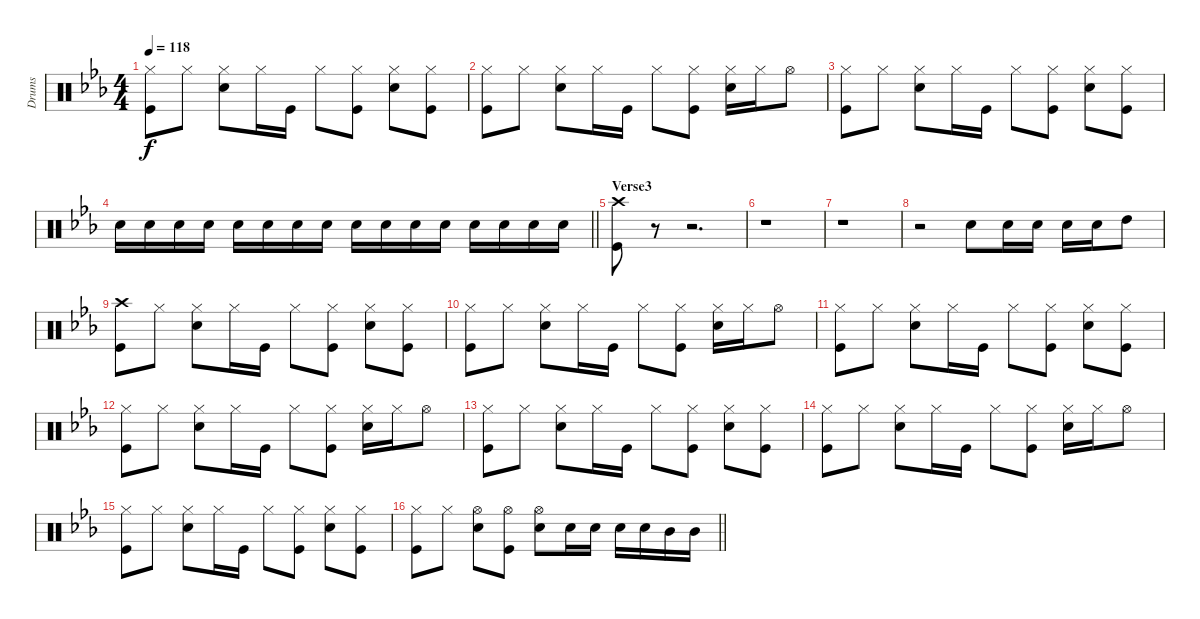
\track ("Drums" "Drums") {instrument percussion}
\staff {score}
\articulation defaults
\ts (4 4)
\tempo 118
\clef neutral
\ks cminor
("Hi-Hat (closed)" "Kick (hit)").8{dy f} "Hi-Hat (closed)".8 ("Hi-Hat (closed)" "Snare (hit) 2").8 "Hi-Hat (closed)".16 "Kick (hit)".16 "Hi-Hat (closed)".8 ("Hi-Hat (closed)" "Kick (hit)").8 ("Hi-Hat (closed)" "Snare (hit) 2").8 ("Hi-Hat (closed)" "Kick (hit)").8 |
("Hi-Hat (closed)" "Kick (hit)").8 "Hi-Hat (closed)".8 ("Hi-Hat (closed)" "Snare (hit) 2").8 "Hi-Hat (closed)".16 "Kick (hit)".16 "Hi-Hat (closed)".8 ("Hi-Hat (closed)" "Kick (hit)").8 ("Hi-Hat (closed)" "Snare (hit) 2").16 "Hi-Hat (closed)".16 "Hi-Hat (open)".8 |
("Hi-Hat (closed)" "Kick (hit)").8 "Hi-Hat (closed)".8 ("Hi-Hat (closed)" "Snare (hit) 2").8 "Hi-Hat (closed)".16 "Kick (hit)".16 "Hi-Hat (closed)".8 ("Hi-Hat (closed)" "Kick (hit)").8 ("Hi-Hat (closed)" "Snare (hit) 2").8 ("Hi-Hat (closed)" "Kick (hit)").8 |
\barLineRight lightlight "Snare (hit) 2".16 "Snare (hit) 2".16 "Snare (hit) 2".16 "Snare (hit) 2".16 "Snare (hit) 2".16 "Snare (hit) 2".16 "Snare (hit) 2".16 "Snare (hit) 2".16 "Snare (hit) 2".16 "Snare (hit) 2".16 "Snare (hit) 2".16 "Snare (hit) 2".16 "Snare (hit) 2".16 "Snare (hit) 2".16 "Snare (hit) 2".16 "Snare (hit) 2".16
|
\section ("" "Verse3")
("Kick (hit)" "Crash high (hit)").8 r.8 r.2{d} |
r.1 |
r.1 |
r.2 "Snare (hit) 2".8 "Snare (hit) 2".16 "Snare (hit) 2".16 "Snare (hit) 2".16 "Snare (hit) 2".16 "High Tom (hit)".8 |
("Crash high (hit)" "Kick (hit)").8 "Hi-Hat (closed)".8 ("Hi-Hat (closed)" "Snare (hit) 2").8 "Hi-Hat (closed)".16 "Kick (hit)".16 "Hi-Hat (closed)".8 ("Hi-Hat (closed)" "Kick (hit)").8 ("Hi-Hat (closed)" "Snare (hit) 2").8 ("Hi-Hat (closed)" "Kick (hit)").8 |
("Hi-Hat (closed)" "Kick (hit)").8 "Hi-Hat (closed)".8 ("Hi-Hat (closed)" "Snare (hit) 2").8 "Hi-Hat (closed)".16 "Kick (hit)".16 "Hi-Hat (closed)".8 ("Hi-Hat (closed)" "Kick (hit)").8 ("Hi-Hat (closed)" "Snare (hit) 2").16 "Hi-Hat (closed)".16 "Hi-Hat (open)".8 |
("Hi-Hat (closed)" "Kick (hit)").8 "Hi-Hat (closed)".8 ("Hi-Hat (closed)" "Snare (hit) 2").8 "Hi-Hat (closed)".16 "Kick (hit)".16 "Hi-Hat (closed)".8 ("Hi-Hat (closed)" "Kick (hit)").8 ("Hi-Hat (closed)" "Snare (hit) 2").8 ("Hi-Hat (closed)" "Kick (hit)").8 |
("Hi-Hat (closed)" "Kick (hit)").8 "Hi-Hat (closed)".8 ("Hi-Hat (closed)" "Snare (hit) 2").8 "Hi-Hat (closed)".16 "Kick (hit)".16 "Hi-Hat (closed)".8 ("Hi-Hat (closed)" "Kick (hit)").8 ("Hi-Hat (closed)" "Snare (hit) 2").16 "Hi-Hat (closed)".16 "Hi-Hat (open)".8 |
("Hi-Hat (closed)" "Kick (hit)").8 "Hi-Hat (closed)".8 ("Hi-Hat (closed)" "Snare (hit) 2").8 "Hi-Hat (closed)".16 "Kick (hit)".16 "Hi-Hat (closed)".8 ("Hi-Hat (closed)" "Kick (hit)").8 ("Hi-Hat (closed)" "Snare (hit) 2").8 ("Hi-Hat (closed)" "Kick (hit)").8 |
("Hi-Hat (closed)" "Kick (hit)").8 "Hi-Hat (closed)".8 ("Hi-Hat (closed)" "Snare (hit) 2").8 "Hi-Hat (closed)".16 "Kick (hit)".16 "Hi-Hat (closed)".8 ("Hi-Hat (closed)" "Kick (hit)").8 ("Hi-Hat (closed)" "Snare (hit) 2").16 "Hi-Hat (closed)".16 "Hi-Hat (open)".8 |
("Hi-Hat (closed)" "Kick (hit)").8 "Hi-Hat (closed)".8 ("Hi-Hat (closed)" "Snare (hit) 2").8 "Hi-Hat (closed)".16 "Kick (hit)".16 "Hi-Hat (closed)".8 ("Hi-Hat (closed)" "Kick (hit)").8 ("Hi-Hat (closed)" "Snare (hit) 2").8 ("Hi-Hat (closed)" "Kick (hit)").8 |
\barLineRight lightlight
("Hi-Hat (closed)" "Kick (hit)").8 "Hi-Hat (closed)".8 ("Hi-Hat (open)" "Snare (hit) 2").8 ("Hi-Hat (open)" "Kick (hit)").8 ("Hi-Hat (open)" "Snare (hit) 2").8 "Snare (hit) 2".16 "Snare (hit) 2".16 "Snare (hit) 2".16 "Snare (hit) 2".16 "Mid Tom (hit)".16 "Mid Tom (hit)".16
